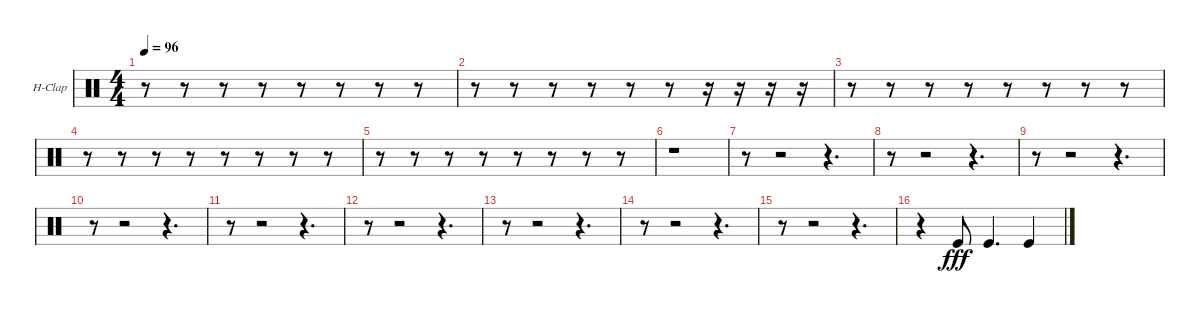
\bracketExtendMode groupsimilarinstruments
\firstSystemTrackNameOrientation horizontal
\otherSystemsTrackNameOrientation horizontal
\track ("Hand Clap" "H-Clap") {instrument percussion}
\staff {score}
\articulation defaults
\ts (4 4)
\tempo 96
\clef neutral
\ks c
r.8{dy fff} r.8 r.8 r.8 r.8 r.8 r.8 r.8 |
r.8 r.8 r.8 r.8 r.8 r.8 r.16 r.16 r.16 r.16 |
r.8 r.8 r.8 r.8 r.8 r.8 r.8 r.8 |
r.8 r.8 r.8 r.8 r.8 r.8 r.8 r.8 |
r.8 r.8 r.8 r.8 r.8 r.8 r.8 r.8 |
r.1 |
r.8 r.2 r.4{d} |
\tempo (98 hide)
r.8 r.2 r.4{d} |
r.8 r.2 r.4{d} |
r.8 r.2 r.4{d} |
r.8 r.2 r.4{d} |
r.8 r.2 r.4{d} |
r.8 r.2 r.4{d} |
r.8 r.2 r.4{d} |
r.8 r.2 r.4{d} |
r.4 "Kick (hit)".8 "Kick (hit)".4{d} "Kick (hit)".4
